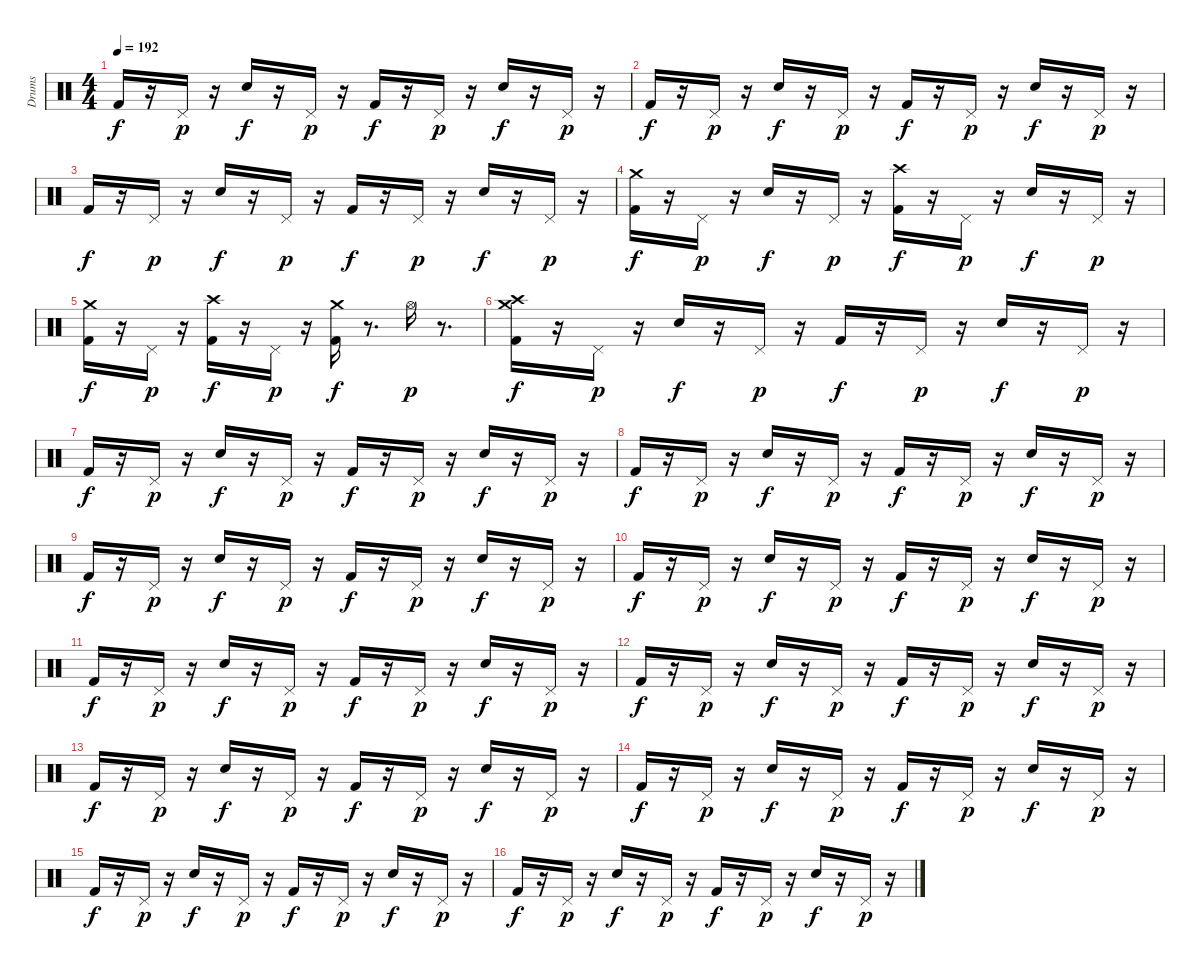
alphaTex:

\track ("Drums" "Drums") {instrument percussion}
\staff {score}
\articulation defaults
\ts (4 4)
\tempo 192
\clef neutral
\ks c "Kick (hit) 2".16{dy f}
r.16 "Pedal Hi-Hat (hit)".16{dy p} r.16 "Electric Snare (hit)".16{dy f} r.16 "Pedal Hi-Hat (hit)".16{dy p} r.16 "Kick (hit) 2".16{dy f} r.16 "Pedal Hi-Hat (hit)".16{dy p} r.16 "Electric Snare (hit)".16{dy f} r.16 "Pedal Hi-Hat (hit)".16{dy p} r.16 |
"Kick (hit) 2".16{dy f} r.16 "Pedal Hi-Hat (hit)".16{dy p} r.16 "Electric Snare (hit)".16{dy f} r.16 "Pedal Hi-Hat (hit)".16{dy p} r.16 "Kick (hit) 2".16{dy f} r.16 "Pedal Hi-Hat (hit)".16{dy p} r.16 "Electric Snare (hit)".16{dy f} r.16 "Pedal Hi-Hat (hit)".16{dy p} r.16 |
"Kick (hit) 2".16{dy f} r.16 "Pedal Hi-Hat (hit)".16{dy p} r.16 "Electric Snare (hit)".16{dy f} r.16 "Pedal Hi-Hat (hit)".16{dy p} r.16 "Kick (hit) 2".16{dy f} r.16 "Pedal Hi-Hat (hit)".16{dy p} r.16 "Electric Snare (hit)".16{dy f} r.16 "Pedal Hi-Hat (hit)".16{dy p} r.16 |
("Crash medium (hit)" "Kick (hit) 2").16{dy f} r.16 "Pedal Hi-Hat (hit)".16{dy p} r.16 "Electric Snare (hit)".16{dy f} r.16 "Pedal Hi-Hat (hit)".16{dy p} r.16 ("Crash high (hit)" "Kick (hit) 2").16{dy f} r.16 "Pedal Hi-Hat (hit)".16{dy p} r.16 "Electric Snare (hit)".16{dy f} r.16 "Pedal Hi-Hat (hit)".16{dy p} r.16 |
("Crash medium (hit)" "Kick (hit) 2").16{dy f} r.16 "Pedal Hi-Hat (hit)".16{dy p} r.16 ("Crash high (hit)" "Kick (hit) 2").16{dy f} r.16 "Pedal Hi-Hat (hit)".16{dy p} r.16 ("Crash medium (hit)" "Kick (hit) 2").16{dy f} r.8{d} "Hi-Hat (open)".16{dy p} r.8{d} |
("Crash medium (hit)" "Crash high (hit)" "Kick (hit) 2").16{dy f} r.16 "Pedal Hi-Hat (hit)".16{dy p} r.16 "Electric Snare (hit)".16{dy f} r.16 "Pedal Hi-Hat (hit)".16{dy p} r.16 "Kick (hit) 2".16{dy f} r.16 "Pedal Hi-Hat (hit)".16{dy p} r.16 "Electric Snare (hit)".16{dy f} r.16 "Pedal Hi-Hat (hit)".16{dy p} r.16 |
"Kick (hit) 2".16{dy f} r.16 "Pedal Hi-Hat (hit)".16{dy p} r.16 "Electric Snare (hit)".16{dy f} r.16 "Pedal Hi-Hat (hit)".16{dy p} r.16 "Kick (hit) 2".16{dy f} r.16 "Pedal Hi-Hat (hit)".16{dy p} r.16 "Electric Snare (hit)".16{dy f} r.16 "Pedal Hi-Hat (hit)".16{dy p} r.16 |
"Kick (hit) 2".16{dy f} r.16 "Pedal Hi-Hat (hit)".16{dy p} r.16 "Electric Snare (hit)".16{dy f} r.16 "Pedal Hi-Hat (hit)".16{dy p} r.16 "Kick (hit) 2".16{dy f} r.16 "Pedal Hi-Hat (hit)".16{dy p} r.16 "Electric Snare (hit)".16{dy f} r.16 "Pedal Hi-Hat (hit)".16{dy p} r.16 |
"Kick (hit) 2".16{dy f} r.16 "Pedal Hi-Hat (hit)".16{dy p} r.16 "Electric Snare (hit)".16{dy f} r.16 "Pedal Hi-Hat (hit)".16{dy p} r.16 "Kick (hit) 2".16{dy f} r.16 "Pedal Hi-Hat (hit)".16{dy p} r.16 "Electric Snare (hit)".16{dy f} r.16 "Pedal Hi-Hat (hit)".16{dy p} r.16 |
"Kick (hit) 2".16{dy f} r.16 "Pedal Hi-Hat (hit)".16{dy p} r.16 "Electric Snare (hit)".16{dy f} r.16 "Pedal Hi-Hat (hit)".16{dy p} r.16 "Kick (hit) 2".16{dy f} r.16 "Pedal Hi-Hat (hit)".16{dy p} r.16 "Electric Snare (hit)".16{dy f} r.16 "Pedal Hi-Hat (hit)".16{dy p} r.16 |
"Kick (hit) 2".16{dy f} r.16 "Pedal Hi-Hat (hit)".16{dy p} r.16 "Electric Snare (hit)".16{dy f} r.16 "Pedal Hi-Hat (hit)".16{dy p} r.16 "Kick (hit) 2".16{dy f} r.16 "Pedal Hi-Hat (hit)".16{dy p} r.16 "Electric Snare (hit)".16{dy f} r.16 "Pedal Hi-Hat (hit)".16{dy p} r.16 |
"Kick (hit) 2".16{dy f} r.16 "Pedal Hi-Hat (hit)".16{dy p} r.16 "Electric Snare (hit)".16{dy f} r.16 "Pedal Hi-Hat (hit)".16{dy p} r.16 "Kick (hit) 2".16{dy f} r.16 "Pedal Hi-Hat (hit)".16{dy p} r.16 "Electric Snare (hit)".16{dy f} r.16 "Pedal Hi-Hat (hit)".16{dy p} r.16 |
"Kick (hit) 2".16{dy f} r.16 "Pedal Hi-Hat (hit)".16{dy p} r.16 "Electric Snare (hit)".16{dy f} r.16 "Pedal Hi-Hat (hit)".16{dy p} r.16 "Kick (hit) 2".16{dy f} r.16 "Pedal Hi-Hat (hit)".16{dy p} r.16 "Electric Snare (hit)".16{dy f} r.16 "Pedal Hi-Hat (hit)".16{dy p} r.16 |
"Kick (hit) 2".16{dy f} r.16 "Pedal Hi-Hat (hit)".16{dy p} r.16 "Electric Snare (hit)".16{dy f} r.16 "Pedal Hi-Hat (hit)".16{dy p} r.16 "Kick (hit) 2".16{dy f} r.16 "Pedal Hi-Hat (hit)".16{dy p} r.16 "Electric Snare (hit)".16{dy f} r.16 "Pedal Hi-Hat (hit)".16{dy p} r.16 |
"Kick (hit) 2".16{dy f} r.16 "Pedal Hi-Hat (hit)".16{dy p} r.16 "Electric Snare (hit)".16{dy f} r.16 "Pedal Hi-Hat (hit)".16{dy p} r.16 "Kick (hit) 2".16{dy f} r.16 "Pedal Hi-Hat (hit)".16{dy p} r.16 "Electric Snare (hit)".16{dy f} r.16 "Pedal Hi-Hat (hit)".16{dy p} r.16 |
"Kick (hit) 2".16{dy f} r.16 "Pedal Hi-Hat (hit)".16{dy p} r.16 "Electric Snare (hit)".16{dy f} r.16 "Pedal Hi-Hat (hit)".16{dy p} r.16 "Kick (hit) 2".16{dy f} r.16 "Pedal Hi-Hat (hit)".16{dy p} r.16 "Electric Snare (hit)".16{dy f} r.16 "Pedal Hi-Hat (hit)".16{dy p} r.16
